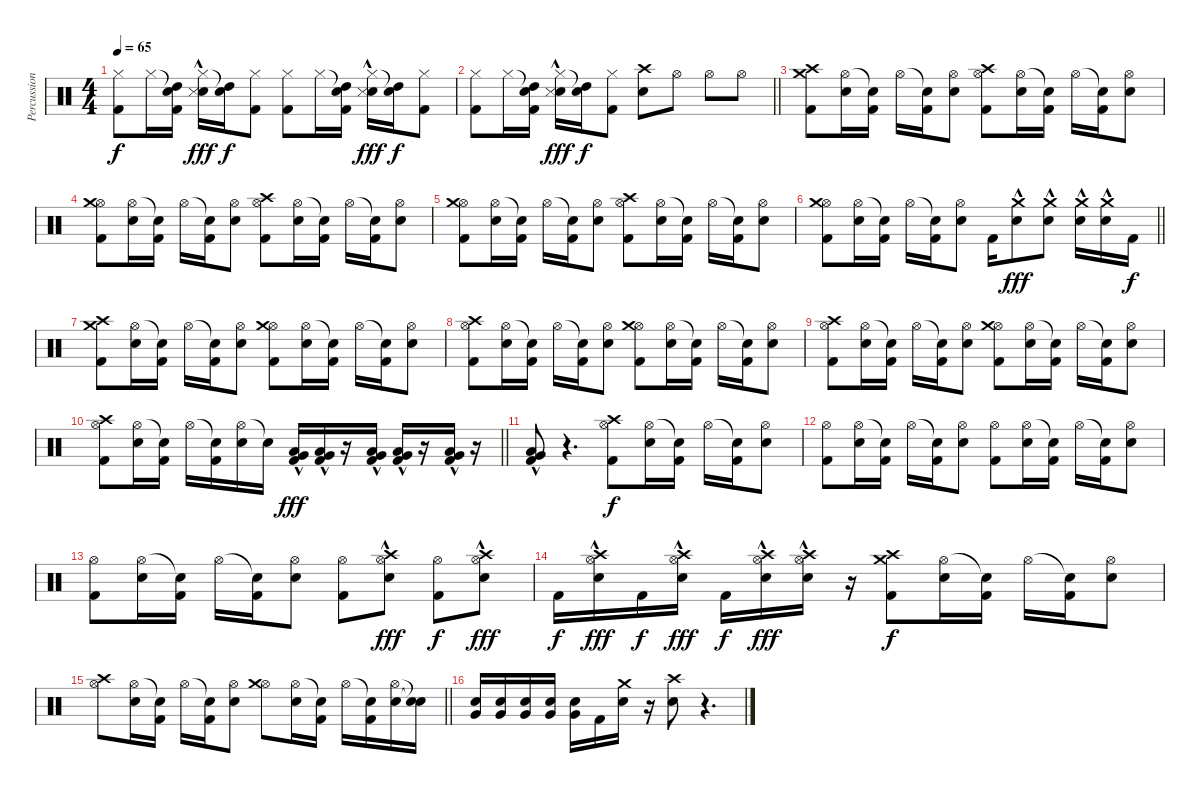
\track ("Percussion 1" "Percussion") {instrument percussion}
\staff {score}
\articulation defaults
\ts (4 4)
\tempo 65
\clef neutral
\ks c
("Hi-Hat (closed)" "Kick (hit) 2").8{dy f} "Hi-Hat (closed)".16 ("Snare (hit)"{t} "High Tom (hit)" "Kick (hit) 2").16 ("Hi-Hat (closed)" "Electric Snare (hit)" "Metronome (hit)"{hac}).16{dy fff} ("Snare (hit)"{t} "High Tom (hit)").16{dy f} ("Hi-Hat (closed)" "Kick (hit) 2").8 ("Hi-Hat (closed)" "Kick (hit) 2").8 "Hi-Hat (closed)".16 ("Snare (hit)"{t} "High Tom (hit)" "Kick (hit) 2").16 ("Hi-Hat (closed)" "Electric Snare (hit)" "Metronome (hit)"{hac}).16{dy fff} ("Snare (hit)"{t} "High Tom (hit)").16{dy f} ("Hi-Hat (closed)" "Kick (hit) 2").8 |
\barLineRight lightlight
("Hi-Hat (closed)" "Kick (hit) 2").8 "Hi-Hat (closed)".16 ("Snare (hit)"{t} "High Tom (hit)" "Kick (hit) 2").16 ("Hi-Hat (closed)" "Electric Snare (hit)" "Metronome (hit)"{hac}).16{dy fff} ("Snare (hit)"{t} "High Tom (hit)").16{dy f} ("Hi-Hat (closed)" "Kick (hit) 2").8 ("Electric Snare (hit)" "Crash high (hit)").8 "Hi-Hat (open)".8 "Hi-Hat (open)".8 "Hi-Hat (open)".8 |
("Crash high (hit)" "Crash medium (hit)" "Kick (hit) 2").8 ("Hi-Hat (open)" "Electric Snare (hit)").16 ("Snare (hit)"{t} "Kick (hit) 2").16 "Hi-Hat (open)".16 ("Snare (hit)"{t} "Kick (hit) 2").16 ("Hi-Hat (open)" "Electric Snare (hit)").8 ("Hi-Hat (open)" "Crash high (hit)" "Kick (hit) 2").8 ("Hi-Hat (open)" "Electric Snare (hit)").16 ("Snare (hit)"{t} "Kick (hit) 2").16 "Hi-Hat (open)".16 ("Snare (hit)"{t} "Kick (hit) 2").16 ("Hi-Hat (open)" "Electric Snare (hit)").8 |
("Hi-Hat (open)" "Crash medium (hit)" "Kick (hit) 2").8 ("Hi-Hat (open)" "Electric Snare (hit)").16 ("Snare (hit)"{t} "Kick (hit) 2").16 "Hi-Hat (open)".16 ("Snare (hit)"{t} "Kick (hit) 2").16 ("Hi-Hat (open)" "Electric Snare (hit)").8 ("Hi-Hat (open)" "Crash high (hit)" "Kick (hit) 2").8 ("Hi-Hat (open)" "Electric Snare (hit)").16 ("Snare (hit)"{t} "Kick (hit) 2").16 "Hi-Hat (open)".16 ("Snare (hit)"{t} "Kick (hit) 2").16 ("Hi-Hat (open)" "Electric Snare (hit)").8 |
("Hi-Hat (open)" "Crash medium (hit)" "Kick (hit) 2").8 ("Hi-Hat (open)" "Electric Snare (hit)").16 ("Snare (hit)"{t} "Kick (hit) 2").16 "Hi-Hat (open)".16 ("Snare (hit)"{t} "Kick (hit) 2").16 ("Hi-Hat (open)" "Electric Snare (hit)").8 ("Hi-Hat (open)" "Crash high (hit)" "Kick (hit) 2").8 ("Hi-Hat (open)" "Electric Snare (hit)").16 ("Snare (hit)"{t} "Kick (hit) 2").16 "Hi-Hat (open)".16 ("Snare (hit)"{t} "Kick (hit) 2").16 ("Hi-Hat (open)" "Electric Snare (hit)").8 |
\barLineRight lightlight
("Hi-Hat (open)" "Crash medium (hit)" "Kick (hit) 2").8 ("Hi-Hat (open)" "Electric Snare (hit)").16 ("Snare (hit)"{t} "Kick (hit) 2").16 "Hi-Hat (open)".16 ("Snare (hit)"{t} "Kick (hit) 2").16 ("Hi-Hat (open)" "Electric Snare (hit)").8 "Kick (hit) 2".16 ("Electric Snare (hit)"{hac} "Crash medium (hit)").8{dy fff} ("Electric Snare (hit)"{hac} "Crash medium (hit)").8 ("Electric Snare (hit)"{hac} "Crash medium (hit)").16 ("Electric Snare (hit)"{hac} "Crash medium (hit)").16 "Kick (hit) 2".16{dy f} |
("Crash high (hit)" "Crash medium (hit)" "Kick (hit) 2").8 ("Hi-Hat (open)" "Electric Snare (hit)").16 ("Snare (hit)"{t} "Kick (hit) 2").16 "Hi-Hat (open)".16 ("Snare (hit)"{t} "Kick (hit) 2").16 ("Hi-Hat (open)" "Electric Snare (hit)").8 ("Hi-Hat (open)" "Crash medium (hit)" "Kick (hit) 2").8 ("Hi-Hat (open)" "Electric Snare (hit)").16 ("Snare (hit)"{t} "Kick (hit) 2").16 "Hi-Hat (open)".16 ("Snare (hit)"{t} "Kick (hit) 2").16 ("Hi-Hat (open)" "Electric Snare (hit)").8 |
("Hi-Hat (open)" "Crash high (hit)" "Kick (hit) 2").8 ("Hi-Hat (open)" "Electric Snare (hit)").16 ("Snare (hit)"{t} "Kick (hit) 2").16 "Hi-Hat (open)".16 ("Snare (hit)"{t} "Kick (hit) 2").16 ("Hi-Hat (open)" "Electric Snare (hit)").8 ("Hi-Hat (open)" "Crash medium (hit)" "Kick (hit) 2").8 ("Hi-Hat (open)" "Electric Snare (hit)").16 ("Snare (hit)"{t} "Kick (hit) 2").16 "Hi-Hat (open)".16 ("Snare (hit)"{t} "Kick (hit) 2").16 ("Hi-Hat (open)" "Electric Snare (hit)").8 |
("Hi-Hat (open)" "Crash high (hit)" "Kick (hit) 2").8 ("Hi-Hat (open)" "Electric Snare (hit)").16 ("Snare (hit)"{t} "Kick (hit) 2").16 "Hi-Hat (open)".16 ("Snare (hit)"{t} "Kick (hit) 2").16 ("Hi-Hat (open)" "Electric Snare (hit)").8 ("Hi-Hat (open)" "Crash medium (hit)" "Kick (hit) 2").8 ("Hi-Hat (open)" "Electric Snare (hit)").16 ("Snare (hit)"{t} "Kick (hit) 2").16 "Hi-Hat (open)".16 ("Snare (hit)"{t} "Kick (hit) 2").16 ("Hi-Hat (open)" "Electric Snare (hit)").8 |
\barLineRight lightlight
("Hi-Hat (open)" "Crash high (hit)" "Kick (hit) 2").8 ("Hi-Hat (open)" "Electric Snare (hit)").16 ("Snare (hit)"{t} "Kick (hit) 2").16 "Hi-Hat (open)".16 ("Snare (hit)"{t} "Kick (hit) 2").16 ("Hi-Hat (open)" "Electric Snare (hit)").16 "Snare (hit)"{t}.16 ("Very Low Tom (hit)"{hac} "Low Floor Tom (hit)"{hac} "Kick (hit) 2"{hac}).16{dy fff} ("Very Low Tom (hit)"{hac} "Low Floor Tom (hit)"{hac} "Kick (hit) 2"{hac}).16 r.16 ("Very Low Tom (hit)"{hac} "Low Floor Tom (hit)"{hac} "Kick (hit) 2"{hac}).16 ("Very Low Tom (hit)"{hac} "Low Floor Tom (hit)"{hac} "Kick (hit) 2"{hac}).16 r.16 ("Very Low Tom (hit)"{hac} "Low Floor Tom (hit)"{hac} "Kick (hit) 2"{hac}).16 r.16 |
("Very Low Tom (hit)"{hac} "Low Floor Tom (hit)"{hac} "Kick (hit) 2"{hac}).8 r.4{d} ("Hi-Hat (open)" "Crash high (hit)" "Kick (hit) 2").8{dy f} ("Hi-Hat (open)" "Electric Snare (hit)").16 ("Snare (hit)"{t} "Kick (hit) 2").16 "Hi-Hat (open)".16 ("Snare (hit)"{t} "Kick (hit) 2").16 ("Hi-Hat (open)" "Electric Snare (hit)").8 |
("Hi-Hat (open)" "Kick (hit) 2").8 ("Hi-Hat (open)" "Electric Snare (hit)").16 ("Snare (hit)"{t} "Kick (hit) 2").16 "Hi-Hat (open)".16 ("Snare (hit)"{t} "Kick (hit) 2").16 ("Hi-Hat (open)" "Electric Snare (hit)").8 ("Hi-Hat (open)" "Kick (hit) 2").8 ("Hi-Hat (open)" "Electric Snare (hit)").16 ("Snare (hit)"{t} "Kick (hit) 2").16 "Hi-Hat (open)".16 ("Snare (hit)"{t} "Kick (hit) 2").16 ("Hi-Hat (open)" "Electric Snare (hit)").8 |
("Hi-Hat (open)" "Kick (hit) 2").8 ("Hi-Hat (open)" "Electric Snare (hit)").16 ("Snare (hit)"{t} "Kick (hit) 2").16 "Hi-Hat (open)".16 ("Snare (hit)"{t} "Kick (hit) 2").16 ("Hi-Hat (open)" "Electric Snare (hit)").8 ("Hi-Hat (open)" "Kick (hit) 2").8 ("Hi-Hat (open)" "Electric Snare (hit)"{hac} "Crash high (hit)"{hac}).8{dy fff} ("Hi-Hat (open)" "Kick (hit) 2").8{dy f} ("Hi-Hat (open)" "Electric Snare (hit)"{hac} "Crash high (hit)"{hac}).8{dy fff} |
"Kick (hit) 2".16{dy f} ("Hi-Hat (open)" "Electric Snare (hit)"{hac} "Crash high (hit)"{hac}).16{dy fff} "Kick (hit) 2".16{dy f} ("Hi-Hat (open)" "Electric Snare (hit)"{hac} "Crash high (hit)"{hac}).16{dy fff} "Kick (hit) 2".16{dy f} ("Hi-Hat (open)" "Electric Snare (hit)"{hac} "Crash high (hit)"{hac}).16{dy fff} ("Hi-Hat (open)" "Electric Snare (hit)"{hac} "Crash high (hit)"{hac}).16 r.16 ("Crash high (hit)" "Crash medium (hit)" "Kick (hit) 2").8{dy f} ("Hi-Hat (open)" "Electric Snare (hit)").16 ("Snare (hit)"{t} "Kick (hit) 2").16 "Hi-Hat (open)".16 ("Snare (hit)"{t} "Kick (hit) 2").16 ("Hi-Hat (open)" "Electric Snare (hit)").8 |
\barLineRight lightlight
("Hi-Hat (open)" "Crash high (hit)").8 ("Hi-Hat (open)" "Electric Snare (hit)").16 ("Snare (hit)"{t} "Kick (hit) 2").16 "Hi-Hat (open)".16 ("Snare (hit)"{t} "Kick (hit) 2").16 ("Hi-Hat (open)" "Electric Snare (hit)").8 ("Hi-Hat (open)" "Crash medium (hit)").8 ("Hi-Hat (open)" "Electric Snare (hit)").16 ("Snare (hit)"{t} "Kick (hit) 2").16 "Hi-Hat (open)".16 ("Snare (hit)"{t} "Kick (hit) 2").16 ("Hi-Hat (open)" "Electric Snare (hit)").16 ("Snare (hit)"{t} "Snare (hit)"{t}).16{volume 10} |
("Very Low Tom (hit)" "Electric Snare (hit)").16{volume 14} ("Very Low Tom (hit)" "Electric Snare (hit)").16 ("Very Low Tom (hit)" "Electric Snare (hit)").16 ("Very Low Tom (hit)" "Electric Snare (hit)").16 ("Very Low Tom (hit)" "Electric Snare (hit)").16 "Kick (hit) 2".16 ("Crash medium (hit)" "Electric Snare (hit)").16 r.16 ("Crash high (hit)" "Electric Snare (hit)").8 r.4{d}
